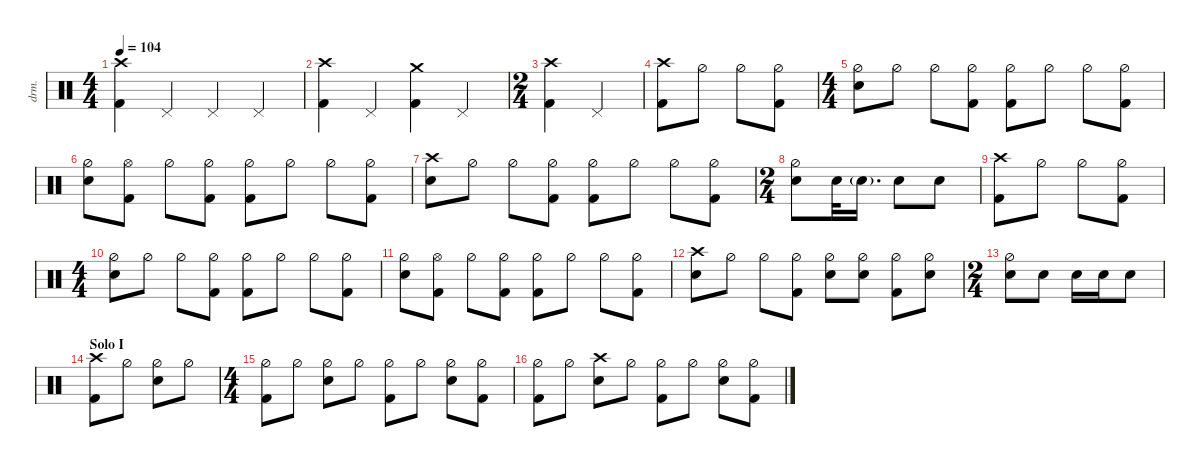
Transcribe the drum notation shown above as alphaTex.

\defaultSystemsLayout 4
\hideDynamics
\bracketExtendMode nobrackets
\track ("Drums" "drm.") {defaultSystemsLayout 4 multiBarRest instrument percussion}
\staff
\articulation defaults
\ts (4 4)
\tempo 104
\clef neutral
\ks c
("Kick (hit) 2" "Crash high (hit)").4{dy f} "Pedal Hi-Hat (hit)".4{dy mp} "Pedal Hi-Hat (hit)".4 "Pedal Hi-Hat (hit)".4 |
("Kick (hit) 2" "Crash high (hit)").4{dy f} "Pedal Hi-Hat (hit)".4{dy mp} ("Kick (hit) 2" "Crash medium (hit)").4{dy f} "Pedal Hi-Hat (hit)".4{dy mp} |
\ts (2 4)
\beaming (8 2 2)
("Kick (hit) 2" "Crash high (hit)").4{dy f} "Pedal Hi-Hat (hit)".4{dy mp} |
("Kick (hit) 2" "Crash high (hit)").8{dy f} "Hi-Hat (half)".8 "Hi-Hat (half)".8 ("Hi-Hat (half)" "Kick (hit) 2").8 |
\ts (4 4)
\beaming (8 2 2 2 2)
("Hi-Hat (half)" "Snare (hit) 2").8 "Hi-Hat (half)".8 "Hi-Hat (half)".8 ("Kick (hit) 2" "Hi-Hat (half)").8 ("Hi-Hat (half)" "Kick (hit) 2").8 "Hi-Hat (half)".8 "Hi-Hat (half)".8 ("Hi-Hat (half)" "Kick (hit) 2").8 |
("Snare (hit) 2" "Hi-Hat (half)").8 ("Hi-Hat (open)" "Kick (hit) 2").8 "Hi-Hat (half)".8 ("Hi-Hat (half)" "Kick (hit) 2").8 ("Hi-Hat (half)" "Kick (hit) 2").8 "Hi-Hat (half)".8 "Hi-Hat (half)".8 ("Hi-Hat (half)" "Kick (hit) 2").8 |
("Snare (hit) 2" "Crash high (hit)").8 "Hi-Hat (half)".8 "Hi-Hat (half)".8 ("Kick (hit) 2" "Hi-Hat (half)").8 ("Hi-Hat (half)" "Kick (hit) 2").8 "Hi-Hat (half)".8 "Hi-Hat (half)".8 ("Hi-Hat (half)" "Kick (hit) 2").8 |
\ts (2 4)
\beaming (8 2 2)
("Snare (hit) 2" "Hi-Hat (half)").8 "Snare (hit) 2".32 "Snare (hit) 2"{g}.16{d dy mf} "Snare (hit) 2".8{dy f} "Snare (hit) 2".8 |
("Kick (hit) 2" "Crash high (hit)").8 "Hi-Hat (half)".8 "Hi-Hat (half)".8 ("Hi-Hat (half)" "Kick (hit) 2").8 |
\ts (4 4)
\beaming (8 2 2 2 2)
("Hi-Hat (half)" "Snare (hit) 2").8 "Hi-Hat (half)".8 "Hi-Hat (half)".8 ("Kick (hit) 2" "Hi-Hat (half)").8 ("Hi-Hat (half)" "Kick (hit) 2").8 "Hi-Hat (half)".8 "Hi-Hat (half)".8 ("Hi-Hat (half)" "Kick (hit) 2").8 |
("Snare (hit) 2" "Hi-Hat (half)").8 ("Hi-Hat (open)" "Kick (hit) 2").8 "Hi-Hat (half)".8 ("Hi-Hat (half)" "Kick (hit) 2").8 ("Hi-Hat (half)" "Kick (hit) 2").8 "Hi-Hat (half)".8 "Hi-Hat (half)".8 ("Hi-Hat (half)" "Kick (hit) 2").8 |
("Snare (hit) 2" "Crash high (hit)").8 "Hi-Hat (half)".8 "Hi-Hat (half)".8 ("Kick (hit) 2" "Hi-Hat (half)").8 ("Hi-Hat (half)" "Snare (hit) 2").8 ("Hi-Hat (half)" "Snare (hit) 2").8 ("Kick (hit) 2" "Hi-Hat (half)").8 ("Hi-Hat (half)" "Snare (hit) 2").8 |
\ts (2 4)
\beaming (8 2 2)
("Hi-Hat (half)" "Snare (hit) 2").8 "Snare (hit) 2".8 "Snare (hit) 2".16 "Snare (hit) 2".16 "Snare (hit) 2".8 |
\section ("" "Solo I")
("Crash high (hit)" "Kick (hit) 2").8 "Hi-Hat (half)".8 ("Hi-Hat (half)" "Snare (hit) 2").8 "Hi-Hat (half)".8 |
\ts (4 4)
\beaming (8 2 2 2 2)
("Kick (hit) 2" "Hi-Hat (half)").8 "Hi-Hat (half)".8 ("Hi-Hat (half)" "Snare (hit) 2").8 "Hi-Hat (half)".8 ("Kick (hit) 2" "Hi-Hat (half)").8 "Hi-Hat (half)".8 ("Hi-Hat (half)" "Snare (hit) 2").8 ("Hi-Hat (half)" "Kick (hit) 2").8 |
("Kick (hit) 2" "Hi-Hat (half)").8 "Hi-Hat (half)".8 ("Snare (hit) 2" "Crash high (hit)").8 "Hi-Hat (half)".8 ("Kick (hit) 2" "Hi-Hat (half)").8 "Hi-Hat (half)".8 ("Snare (hit) 2" "Hi-Hat (half)").8 ("Kick (hit) 2" "Hi-Hat (half)").8
